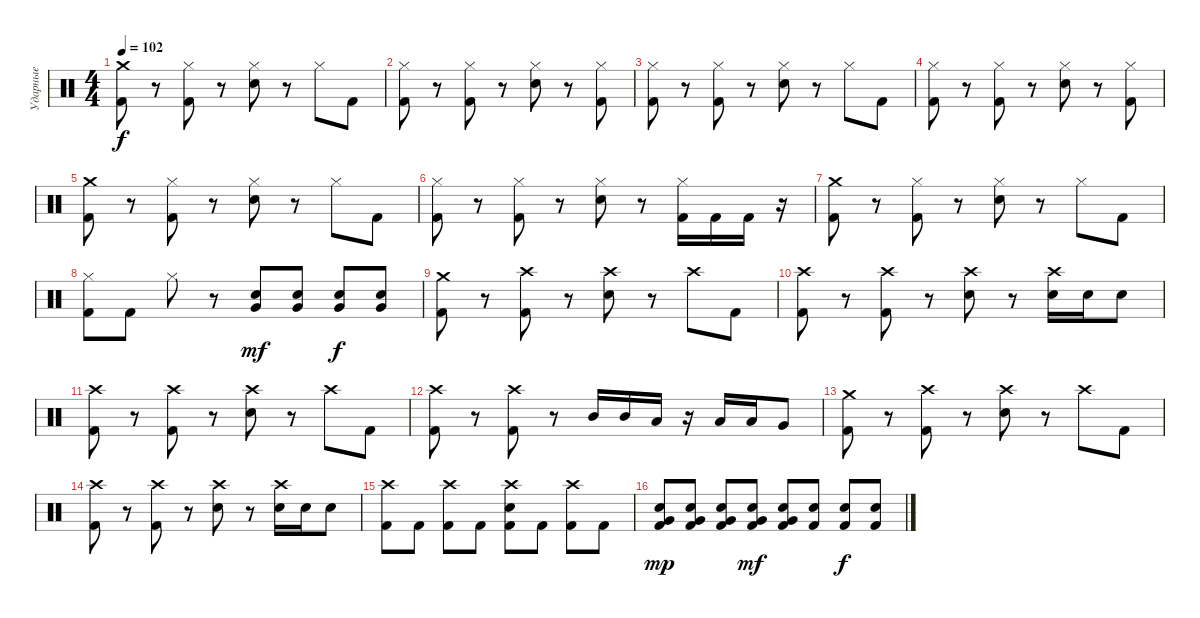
\track ("Ударные" "Ударные") {instrument percussion}
\staff {score}
\articulation defaults
\ts (4 4)
\tempo 102
\clef neutral
\ks c
("Crash medium (hit)" "Kick (hit) 2").8{dy f} r.8 ("Hi-Hat (closed)" "Kick (hit) 2").8 r.8 ("Hi-Hat (closed)" "Electric Snare (hit)").8 r.8 "Hi-Hat (closed)".8 "Kick (hit) 2".8 |
("Hi-Hat (closed)" "Kick (hit) 2").8 r.8 ("Hi-Hat (closed)" "Kick (hit) 2").8 r.8 ("Hi-Hat (closed)" "Electric Snare (hit)").8 r.8 ("Hi-Hat (closed)" "Kick (hit) 2").8 |
("Hi-Hat (closed)" "Kick (hit) 2").8 r.8 ("Hi-Hat (closed)" "Kick (hit) 2").8 r.8 ("Hi-Hat (closed)" "Electric Snare (hit)").8 r.8 "Hi-Hat (closed)".8 "Kick (hit) 2".8 |
("Hi-Hat (closed)" "Kick (hit) 2").8 r.8 ("Hi-Hat (closed)" "Kick (hit) 2").8 r.8 ("Hi-Hat (closed)" "Electric Snare (hit)").8 r.8 ("Hi-Hat (closed)" "Kick (hit) 2").8 |
("Crash medium (hit)" "Kick (hit) 2").8 r.8 ("Hi-Hat (closed)" "Kick (hit) 2").8 r.8 ("Hi-Hat (closed)" "Electric Snare (hit)").8 r.8 "Hi-Hat (closed)".8 "Kick (hit) 2".8 |
("Hi-Hat (closed)" "Kick (hit) 2").8 r.8 ("Hi-Hat (closed)" "Kick (hit) 2").8 r.8 ("Hi-Hat (closed)" "Electric Snare (hit)").8 r.8 ("Hi-Hat (closed)" "Kick (hit) 2").16 "Kick (hit) 2".16 "Kick (hit) 2".16 r.16 |
("Crash medium (hit)" "Kick (hit) 2").8 r.8 ("Hi-Hat (closed)" "Kick (hit) 2").8 r.8 ("Hi-Hat (closed)" "Electric Snare (hit)").8 r.8 "Hi-Hat (closed)".8 "Kick (hit) 2".8 |
("Hi-Hat (closed)" "Kick (hit) 2").8 "Kick (hit) 2".8 "Hi-Hat (closed)".8 r.8 ("Electric Snare (hit)" "Very Low Tom (hit)").8{dy mf} ("Electric Snare (hit)" "Very Low Tom (hit)").8 ("Electric Snare (hit)" "Very Low Tom (hit)").8{dy f} ("Electric Snare (hit)" "Very Low Tom (hit)").8 |
("Crash medium (hit)" "Kick (hit) 2").8 r.8 ("Crash high (hit)" "Kick (hit) 2").8 r.8 ("Crash high (hit)" "Electric Snare (hit)").8 r.8 "Crash high (hit)".8 "Kick (hit) 2".8 |
("Crash high (hit)" "Kick (hit) 2").8 r.8 ("Crash high (hit)" "Kick (hit) 2").8 r.8 ("Crash high (hit)" "Electric Snare (hit)").8 r.8 ("Crash high (hit)" "Electric Snare (hit)").16 "Electric Snare (hit)".16 "Electric Snare (hit)".8 |
("Crash high (hit)" "Kick (hit) 2").8 r.8 ("Crash high (hit)" "Kick (hit) 2").8 r.8 ("Crash high (hit)" "Electric Snare (hit)").8 r.8 "Crash high (hit)".8 "Kick (hit) 2".8 |
("Crash high (hit)" "Kick (hit) 2").8 r.8 ("Crash high (hit)" "Kick (hit) 2").8 r.8 "Mid Tom (hit)".16 "Mid Tom (hit)".16 "Low Tom (hit)".16 r.16 "Low Tom (hit)".16 "Low Tom (hit)".16 "Very Low Tom (hit)".8 |
("Crash medium (hit)" "Kick (hit) 2").8 r.8 ("Crash high (hit)" "Kick (hit) 2").8 r.8 ("Crash high (hit)" "Electric Snare (hit)").8 r.8 "Crash high (hit)".8 "Kick (hit) 2".8 |
("Crash high (hit)" "Kick (hit) 2").8 r.8 ("Crash high (hit)" "Kick (hit) 2").8 r.8 ("Crash high (hit)" "Electric Snare (hit)").8 r.8 ("Crash high (hit)" "Electric Snare (hit)").16 "Electric Snare (hit)".16 "Electric Snare (hit)".8 |
("Crash high (hit)" "Kick (hit) 2").8 "Kick (hit) 2".8 ("Crash high (hit)" "Kick (hit) 2").8 "Kick (hit) 2".8 ("Crash high (hit)" "Electric Snare (hit)" "Kick (hit) 2").8 "Kick (hit) 2".8 ("Crash high (hit)" "Kick (hit) 2").8 "Kick (hit) 2".8 |
("Kick (hit) 2" "Electric Snare (hit)" "Very Low Tom (hit)").8{dy mp} ("Kick (hit) 2" "Electric Snare (hit)" "Very Low Tom (hit)").8 ("Kick (hit) 2" "Electric Snare (hit)" "Very Low Tom (hit)").8 ("Kick (hit) 2" "Electric Snare (hit)" "Very Low Tom (hit)").8{dy mf} ("Kick (hit) 2" "Electric Snare (hit)" "Very Low Tom (hit)").8 ("Kick (hit) 2" "Electric Snare (hit)").8 ("Kick (hit) 2" "Electric Snare (hit)").8{dy f} ("Kick (hit) 2" "Electric Snare (hit)").8
